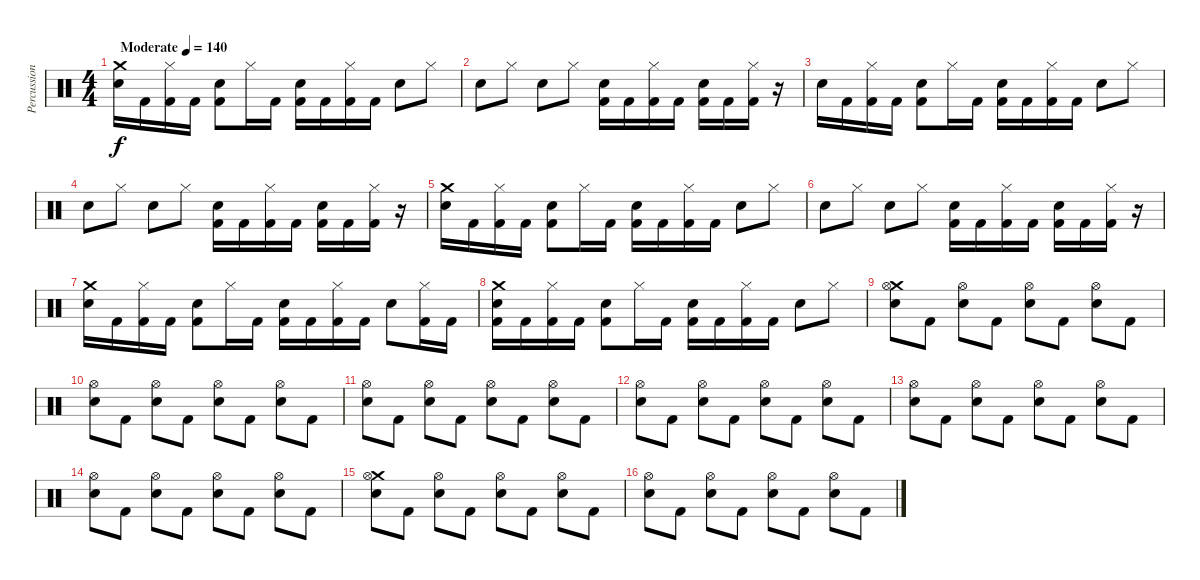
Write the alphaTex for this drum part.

\track ("Percussion" "Percussion") {instrument percussion}
\staff {score}
\articulation defaults
\ts (4 4)
\tempo (140 "Moderate")
\clef neutral
\ks c
("Crash medium (hit)" "Electric Snare (hit)").16{dy f} "Kick (hit) 2".16 ("Kick (hit) 2" "Hi-Hat (closed)").16 "Kick (hit) 2".16 ("Kick (hit) 2" "Electric Snare (hit)").8 "Hi-Hat (closed)".16 "Kick (hit) 2".16 ("Kick (hit) 2" "Electric Snare (hit)").16 "Kick (hit) 2".16 ("Kick (hit) 2" "Hi-Hat (closed)").16 "Kick (hit) 2".16 "Electric Snare (hit)".8 "Hi-Hat (closed)".8 |
"Electric Snare (hit)".8 "Hi-Hat (closed)".8 "Electric Snare (hit)".8 "Hi-Hat (closed)".8 ("Kick (hit) 2" "Electric Snare (hit)").16 "Kick (hit) 2".16 ("Kick (hit) 2" "Hi-Hat (closed)").16 "Kick (hit) 2".16 ("Kick (hit) 2" "Electric Snare (hit)").16 "Kick (hit) 2".16 ("Kick (hit) 2" "Hi-Hat (closed)").16 r.16 |
"Electric Snare (hit)".16 "Kick (hit) 2".16 ("Kick (hit) 2" "Hi-Hat (closed)").16 "Kick (hit) 2".16 ("Kick (hit) 2" "Electric Snare (hit)").8 "Hi-Hat (closed)".16 "Kick (hit) 2".16 ("Kick (hit) 2" "Electric Snare (hit)").16 "Kick (hit) 2".16 ("Kick (hit) 2" "Hi-Hat (closed)").16 "Kick (hit) 2".16 "Electric Snare (hit)".8 "Hi-Hat (closed)".8 |
"Electric Snare (hit)".8 "Hi-Hat (closed)".8 "Electric Snare (hit)".8 "Hi-Hat (closed)".8 ("Kick (hit) 2" "Electric Snare (hit)").16 "Kick (hit) 2".16 ("Kick (hit) 2" "Hi-Hat (closed)").16 "Kick (hit) 2".16 ("Kick (hit) 2" "Electric Snare (hit)").16 "Kick (hit) 2".16 ("Kick (hit) 2" "Hi-Hat (closed)").16 r.16 |
("Crash medium (hit)" "Electric Snare (hit)").16 "Kick (hit) 2".16 ("Kick (hit) 2" "Hi-Hat (closed)").16 "Kick (hit) 2".16 ("Kick (hit) 2" "Electric Snare (hit)").8 "Hi-Hat (closed)".16 "Kick (hit) 2".16 ("Kick (hit) 2" "Electric Snare (hit)").16 "Kick (hit) 2".16 ("Kick (hit) 2" "Hi-Hat (closed)").16 "Kick (hit) 2".16 "Electric Snare (hit)".8 "Hi-Hat (closed)".8 |
"Electric Snare (hit)".8 "Hi-Hat (closed)".8 "Electric Snare (hit)".8 "Hi-Hat (closed)".8 ("Kick (hit) 2" "Electric Snare (hit)").16 "Kick (hit) 2".16 ("Kick (hit) 2" "Hi-Hat (closed)").16 "Kick (hit) 2".16 ("Kick (hit) 2" "Electric Snare (hit)").16 "Kick (hit) 2".16 ("Kick (hit) 2" "Hi-Hat (closed)").16 r.16 |
("Crash medium (hit)" "Electric Snare (hit)").16 "Kick (hit) 2".16 ("Kick (hit) 2" "Hi-Hat (closed)").16 "Kick (hit) 2".16 ("Kick (hit) 2" "Electric Snare (hit)").8 "Hi-Hat (closed)".16 "Kick (hit) 2".16 ("Kick (hit) 2" "Electric Snare (hit)").16 "Kick (hit) 2".16 ("Kick (hit) 2" "Hi-Hat (closed)").16 "Kick (hit) 2".16 "Electric Snare (hit)".8 ("Kick (hit) 2" "Hi-Hat (closed)").16 "Kick (hit) 2".16 |
("Crash medium (hit)" "Kick (hit) 2" "Electric Snare (hit)").16 "Kick (hit) 2".16 ("Kick (hit) 2" "Hi-Hat (closed)").16 "Kick (hit) 2".16 ("Kick (hit) 2" "Electric Snare (hit)").8 "Hi-Hat (closed)".16 "Kick (hit) 2".16 ("Kick (hit) 2" "Electric Snare (hit)").16 "Kick (hit) 2".16 ("Kick (hit) 2" "Hi-Hat (closed)").16 "Kick (hit) 2".16 "Electric Snare (hit)".8 "Hi-Hat (closed)".8 |
("Crash medium (hit)" "Hi-Hat (open)" "Electric Snare (hit)").8 "Kick (hit) 2".8 ("Hi-Hat (open)" "Electric Snare (hit)").8 "Kick (hit) 2".8 ("Hi-Hat (open)" "Electric Snare (hit)").8 "Kick (hit) 2".8 ("Hi-Hat (open)" "Electric Snare (hit)").8 "Kick (hit) 2".8 |
("Hi-Hat (open)" "Electric Snare (hit)").8 "Kick (hit) 2".8 ("Hi-Hat (open)" "Electric Snare (hit)").8 "Kick (hit) 2".8 ("Hi-Hat (open)" "Electric Snare (hit)").8 "Kick (hit) 2".8 ("Hi-Hat (open)" "Electric Snare (hit)").8 "Kick (hit) 2".8 |
("Hi-Hat (open)" "Electric Snare (hit)").8 "Kick (hit) 2".8 ("Hi-Hat (open)" "Electric Snare (hit)").8 "Kick (hit) 2".8 ("Hi-Hat (open)" "Electric Snare (hit)").8 "Kick (hit) 2".8 ("Hi-Hat (open)" "Electric Snare (hit)").8 "Kick (hit) 2".8 |
("Hi-Hat (open)" "Electric Snare (hit)").8 "Kick (hit) 2".8 ("Hi-Hat (open)" "Electric Snare (hit)").8 "Kick (hit) 2".8 ("Hi-Hat (open)" "Electric Snare (hit)").8 "Kick (hit) 2".8 ("Hi-Hat (open)" "Electric Snare (hit)").8 "Kick (hit) 2".8 |
("Hi-Hat (open)" "Electric Snare (hit)").8 "Kick (hit) 2".8 ("Hi-Hat (open)" "Electric Snare (hit)").8 "Kick (hit) 2".8 ("Hi-Hat (open)" "Electric Snare (hit)").8 "Kick (hit) 2".8 ("Hi-Hat (open)" "Electric Snare (hit)").8 "Kick (hit) 2".8 |
("Hi-Hat (open)" "Electric Snare (hit)").8 "Kick (hit) 2".8 ("Hi-Hat (open)" "Electric Snare (hit)").8 "Kick (hit) 2".8 ("Hi-Hat (open)" "Electric Snare (hit)").8 "Kick (hit) 2".8 ("Hi-Hat (open)" "Electric Snare (hit)").8 "Kick (hit) 2".8 |
("Crash medium (hit)" "Hi-Hat (open)" "Electric Snare (hit)").8 "Kick (hit) 2".8 ("Hi-Hat (open)" "Electric Snare (hit)").8 "Kick (hit) 2".8 ("Hi-Hat (open)" "Electric Snare (hit)").8 "Kick (hit) 2".8 ("Hi-Hat (open)" "Electric Snare (hit)").8 "Kick (hit) 2".8 |
("Hi-Hat (open)" "Electric Snare (hit)").8 "Kick (hit) 2".8 ("Hi-Hat (open)" "Electric Snare (hit)").8 "Kick (hit) 2".8 ("Hi-Hat (open)" "Electric Snare (hit)").8 "Kick (hit) 2".8 ("Hi-Hat (open)" "Electric Snare (hit)").8 "Kick (hit) 2".8
